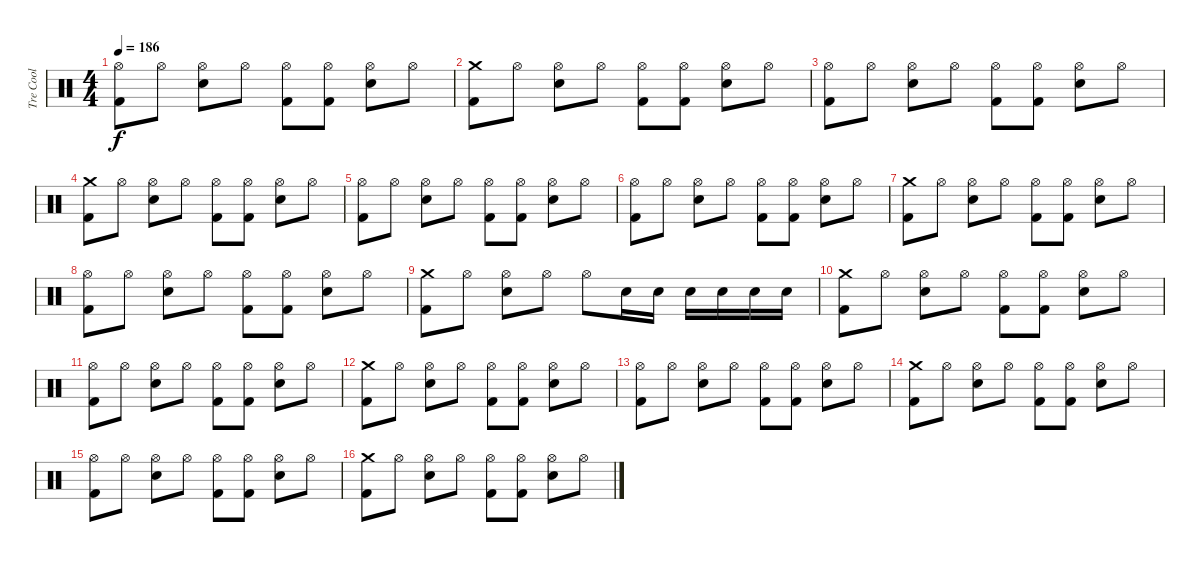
\track ("Tre Cool" "Tre Cool") {instrument percussion}
\staff {score}
\articulation defaults
\ts (4 4)
\tempo 186
\clef neutral
\ks c
("Hi-Hat (open)" "Kick (hit) 2").8{dy f} "Hi-Hat (open)".8 ("Hi-Hat (open)" "Snare (hit) 2").8 "Hi-Hat (open)".8 ("Hi-Hat (open)" "Kick (hit) 2").8 ("Hi-Hat (open)" "Kick (hit) 2").8 ("Hi-Hat (open)" "Snare (hit) 2").8 "Hi-Hat (open)".8 |
("Crash medium (hit)" "Kick (hit) 2").8 "Hi-Hat (open)".8 ("Hi-Hat (open)" "Snare (hit) 2").8 "Hi-Hat (open)".8 ("Hi-Hat (open)" "Kick (hit) 2").8 ("Hi-Hat (open)" "Kick (hit) 2").8 ("Hi-Hat (open)" "Snare (hit) 2").8 "Hi-Hat (open)".8 |
("Hi-Hat (open)" "Kick (hit) 2").8 "Hi-Hat (open)".8 ("Hi-Hat (open)" "Snare (hit) 2").8 "Hi-Hat (open)".8 ("Hi-Hat (open)" "Kick (hit) 2").8 ("Hi-Hat (open)" "Kick (hit) 2").8 ("Hi-Hat (open)" "Snare (hit) 2").8 "Hi-Hat (open)".8 |
("Crash medium (hit)" "Kick (hit) 2").8 "Hi-Hat (open)".8 ("Hi-Hat (open)" "Snare (hit) 2").8 "Hi-Hat (open)".8 ("Hi-Hat (open)" "Kick (hit) 2").8 ("Hi-Hat (open)" "Kick (hit) 2").8 ("Hi-Hat (open)" "Snare (hit) 2").8 "Hi-Hat (open)".8 |
("Hi-Hat (open)" "Kick (hit) 2").8 "Hi-Hat (open)".8 ("Hi-Hat (open)" "Snare (hit) 2").8 "Hi-Hat (open)".8 ("Hi-Hat (open)" "Kick (hit) 2").8 ("Hi-Hat (open)" "Kick (hit) 2").8 ("Hi-Hat (open)" "Snare (hit) 2").8 "Hi-Hat (open)".8 |
("Hi-Hat (open)" "Kick (hit) 2").8 "Hi-Hat (open)".8 ("Hi-Hat (open)" "Snare (hit) 2").8 "Hi-Hat (open)".8 ("Hi-Hat (open)" "Kick (hit) 2").8 ("Hi-Hat (open)" "Kick (hit) 2").8 ("Hi-Hat (open)" "Snare (hit) 2").8 "Hi-Hat (open)".8 |
("Crash medium (hit)" "Kick (hit) 2").8 "Hi-Hat (open)".8 ("Hi-Hat (open)" "Snare (hit) 2").8 "Hi-Hat (open)".8 ("Hi-Hat (open)" "Kick (hit) 2").8 ("Hi-Hat (open)" "Kick (hit) 2").8 ("Hi-Hat (open)" "Snare (hit) 2").8 "Hi-Hat (open)".8 |
("Hi-Hat (open)" "Kick (hit) 2").8 "Hi-Hat (open)".8 ("Hi-Hat (open)" "Snare (hit) 2").8 "Hi-Hat (open)".8 ("Hi-Hat (open)" "Kick (hit) 2").8 ("Hi-Hat (open)" "Kick (hit) 2").8 ("Hi-Hat (open)" "Snare (hit) 2").8 "Hi-Hat (open)".8 |
("Crash medium (hit)" "Kick (hit) 2").8 "Hi-Hat (open)".8 ("Hi-Hat (open)" "Snare (hit) 2").8 "Hi-Hat (open)".8 "Hi-Hat (open)".8 "Electric Snare (hit)".16 "Electric Snare (hit)".16 "Electric Snare (hit)".16 "Electric Snare (hit)".16 "Electric Snare (hit)".16 "Electric Snare (hit)".16 |
("Crash medium (hit)" "Kick (hit) 2").8 "Hi-Hat (open)".8 ("Hi-Hat (open)" "Snare (hit) 2").8 "Hi-Hat (open)".8 ("Hi-Hat (open)" "Kick (hit) 2").8 ("Hi-Hat (open)" "Kick (hit) 2").8 ("Hi-Hat (open)" "Snare (hit) 2").8 "Hi-Hat (open)".8 |
("Hi-Hat (open)" "Kick (hit) 2").8 "Hi-Hat (open)".8 ("Hi-Hat (open)" "Snare (hit) 2").8 "Hi-Hat (open)".8 ("Hi-Hat (open)" "Kick (hit) 2").8 ("Hi-Hat (open)" "Kick (hit) 2").8 ("Hi-Hat (open)" "Snare (hit) 2").8 "Hi-Hat (open)".8 |
("Crash medium (hit)" "Kick (hit) 2").8 "Hi-Hat (open)".8 ("Hi-Hat (open)" "Snare (hit) 2").8 "Hi-Hat (open)".8 ("Hi-Hat (open)" "Kick (hit) 2").8 ("Hi-Hat (open)" "Kick (hit) 2").8 ("Hi-Hat (open)" "Snare (hit) 2").8 "Hi-Hat (open)".8 |
("Hi-Hat (open)" "Kick (hit) 2").8 "Hi-Hat (open)".8 ("Hi-Hat (open)" "Snare (hit) 2").8 "Hi-Hat (open)".8 ("Hi-Hat (open)" "Kick (hit) 2").8 ("Hi-Hat (open)" "Kick (hit) 2").8 ("Hi-Hat (open)" "Snare (hit) 2").8 "Hi-Hat (open)".8 |
("Crash medium (hit)" "Kick (hit) 2").8 "Hi-Hat (open)".8 ("Hi-Hat (open)" "Snare (hit) 2").8 "Hi-Hat (open)".8 ("Hi-Hat (open)" "Kick (hit) 2").8 ("Hi-Hat (open)" "Kick (hit) 2").8 ("Hi-Hat (open)" "Snare (hit) 2").8 "Hi-Hat (open)".8 |
("Hi-Hat (open)" "Kick (hit) 2").8 "Hi-Hat (open)".8 ("Hi-Hat (open)" "Snare (hit) 2").8 "Hi-Hat (open)".8 ("Hi-Hat (open)" "Kick (hit) 2").8 ("Hi-Hat (open)" "Kick (hit) 2").8 ("Hi-Hat (open)" "Snare (hit) 2").8 "Hi-Hat (open)".8 |
("Crash medium (hit)" "Kick (hit) 2").8 "Hi-Hat (open)".8 ("Hi-Hat (open)" "Snare (hit) 2").8 "Hi-Hat (open)".8 ("Hi-Hat (open)" "Kick (hit) 2").8 ("Hi-Hat (open)" "Kick (hit) 2").8 ("Hi-Hat (open)" "Snare (hit) 2").8 "Hi-Hat (open)".8
